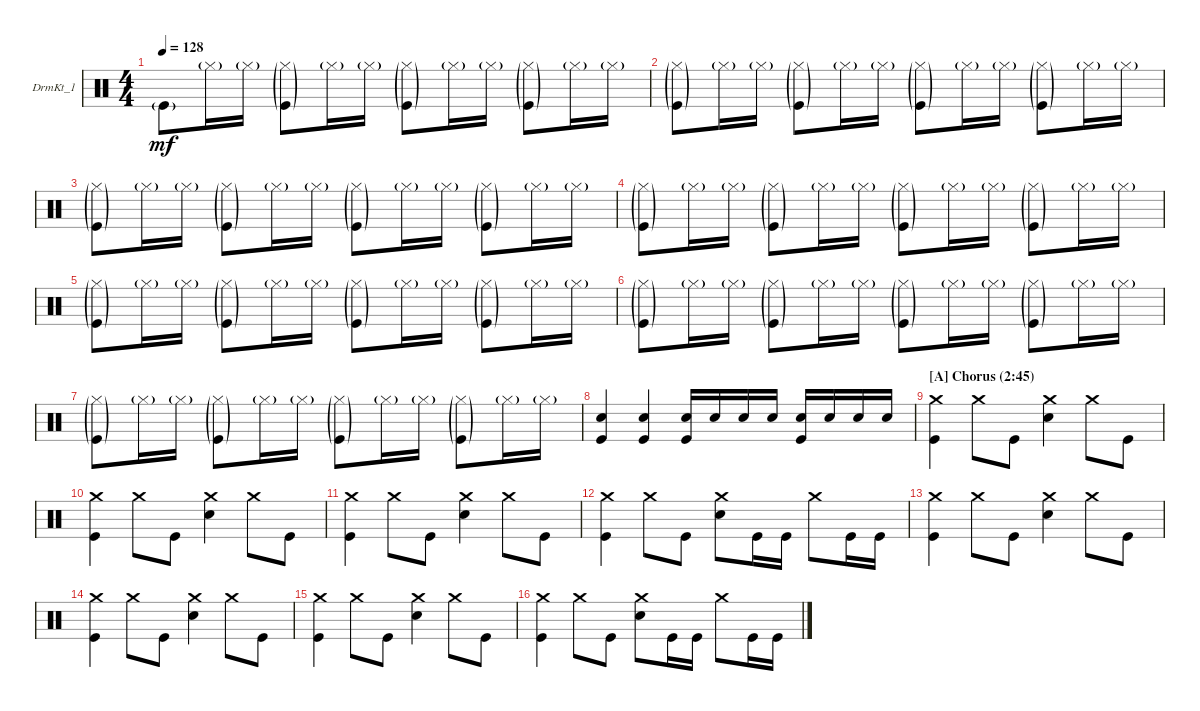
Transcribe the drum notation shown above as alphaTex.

\defaultSystemsLayout 4
\bracketExtendMode groupsimilarinstruments
\firstSystemTrackNameOrientation horizontal
\otherSystemsTrackNameOrientation horizontal
\track ("DrmKt_1" "DrmKt_1") {instrument percussion}
\staff {score}
\articulation defaults
\ts (4 4)
\tempo 128
\clef neutral
\ks c "Kick (hit)"{g}.8{dy mf} "Hi-Hat (closed)"{g}.16 "Hi-Hat (closed)"{g}.16
("Kick (hit)"{g} "Hi-Hat (closed)"{g}).8 "Hi-Hat (closed)"{g}.16 "Hi-Hat (closed)"{g}.16 ("Kick (hit)"{g} "Hi-Hat (closed)"{g}).8 "Hi-Hat (closed)"{g}.16 "Hi-Hat (closed)"{g}.16 ("Kick (hit)"{g} "Hi-Hat (closed)"{g}).8 "Hi-Hat (closed)"{g}.16 "Hi-Hat (closed)"{g}.16 |
("Kick (hit)"{g} "Hi-Hat (closed)"{g}).8 "Hi-Hat (closed)"{g}.16 "Hi-Hat (closed)"{g}.16 ("Kick (hit)"{g} "Hi-Hat (closed)"{g}).8 "Hi-Hat (closed)"{g}.16 "Hi-Hat (closed)"{g}.16 ("Kick (hit)"{g} "Hi-Hat (closed)"{g}).8 "Hi-Hat (closed)"{g}.16 "Hi-Hat (closed)"{g}.16 ("Kick (hit)"{g} "Hi-Hat (closed)"{g}).8 "Hi-Hat (closed)"{g}.16 "Hi-Hat (closed)"{g}.16 |
("Kick (hit)"{g} "Hi-Hat (closed)"{g}).8 "Hi-Hat (closed)"{g}.16 "Hi-Hat (closed)"{g}.16 ("Kick (hit)"{g} "Hi-Hat (closed)"{g}).8 "Hi-Hat (closed)"{g}.16 "Hi-Hat (closed)"{g}.16 ("Kick (hit)"{g} "Hi-Hat (closed)"{g}).8 "Hi-Hat (closed)"{g}.16 "Hi-Hat (closed)"{g}.16 ("Kick (hit)"{g} "Hi-Hat (closed)"{g}).8 "Hi-Hat (closed)"{g}.16 "Hi-Hat (closed)"{g}.16 |
("Kick (hit)"{g} "Hi-Hat (closed)"{g}).8 "Hi-Hat (closed)"{g}.16 "Hi-Hat (closed)"{g}.16 ("Kick (hit)"{g} "Hi-Hat (closed)"{g}).8 "Hi-Hat (closed)"{g}.16 "Hi-Hat (closed)"{g}.16 ("Kick (hit)"{g} "Hi-Hat (closed)"{g}).8 "Hi-Hat (closed)"{g}.16 "Hi-Hat (closed)"{g}.16 ("Kick (hit)"{g} "Hi-Hat (closed)"{g}).8 "Hi-Hat (closed)"{g}.16 "Hi-Hat (closed)"{g}.16 |
("Kick (hit)"{g} "Hi-Hat (closed)"{g}).8 "Hi-Hat (closed)"{g}.16 "Hi-Hat (closed)"{g}.16 ("Kick (hit)"{g} "Hi-Hat (closed)"{g}).8 "Hi-Hat (closed)"{g}.16 "Hi-Hat (closed)"{g}.16 ("Kick (hit)"{g} "Hi-Hat (closed)"{g}).8 "Hi-Hat (closed)"{g}.16 "Hi-Hat (closed)"{g}.16 ("Kick (hit)"{g} "Hi-Hat (closed)"{g}).8 "Hi-Hat (closed)"{g}.16 "Hi-Hat (closed)"{g}.16 |
("Kick (hit)"{g} "Hi-Hat (closed)"{g}).8 "Hi-Hat (closed)"{g}.16 "Hi-Hat (closed)"{g}.16 ("Kick (hit)"{g} "Hi-Hat (closed)"{g}).8 "Hi-Hat (closed)"{g}.16 "Hi-Hat (closed)"{g}.16 ("Kick (hit)"{g} "Hi-Hat (closed)"{g}).8 "Hi-Hat (closed)"{g}.16 "Hi-Hat (closed)"{g}.16 ("Kick (hit)"{g} "Hi-Hat (closed)"{g}).8 "Hi-Hat (closed)"{g}.16 "Hi-Hat (closed)"{g}.16 |
("Kick (hit)"{g} "Hi-Hat (closed)"{g}).8 "Hi-Hat (closed)"{g}.16 "Hi-Hat (closed)"{g}.16 ("Kick (hit)"{g} "Hi-Hat (closed)"{g}).8 "Hi-Hat (closed)"{g}.16 "Hi-Hat (closed)"{g}.16 ("Kick (hit)"{g} "Hi-Hat (closed)"{g}).8 "Hi-Hat (closed)"{g}.16 "Hi-Hat (closed)"{g}.16 ("Kick (hit)"{g} "Hi-Hat (closed)"{g}).8 "Hi-Hat (closed)"{g}.16 "Hi-Hat (closed)"{g}.16 |
("Kick (hit)" "Snare (hit) 2").4 ("Kick (hit)" "Snare (hit) 2").4 ("Kick (hit)" "Snare (hit) 2").16 "Snare (hit) 2".16 "Snare (hit) 2".16 "Snare (hit) 2".16 ("Kick (hit)" "Snare (hit) 2").16 "Snare (hit) 2".16 "Snare (hit) 2".16 "Snare (hit) 2".16 |
\section ("A" "Chorus (2:45)")
("Kick (hit)" "Crash medium (hit)").4 "Crash medium (hit)".8 "Kick (hit)".8 ("Snare (hit) 2" "Crash medium (hit)").4 "Crash medium (hit)".8 "Kick (hit)".8 |
("Kick (hit)" "Crash medium (hit)").4 "Crash medium (hit)".8 "Kick (hit)".8 ("Snare (hit) 2" "Crash medium (hit)").4 "Crash medium (hit)".8 "Kick (hit)".8 |
("Kick (hit)" "Crash medium (hit)").4 "Crash medium (hit)".8 "Kick (hit)".8 ("Snare (hit) 2" "Crash medium (hit)").4 "Crash medium (hit)".8 "Kick (hit)".8 |
("Kick (hit)" "Crash medium (hit)").4 "Crash medium (hit)".8 "Kick (hit)".8 ("Snare (hit) 2" "Crash medium (hit)").8 "Kick (hit)".16 "Kick (hit)".16 "Crash medium (hit)".8 "Kick (hit)".16 "Kick (hit)".16 |
("Kick (hit)" "Crash medium (hit)").4 "Crash medium (hit)".8 "Kick (hit)".8 ("Snare (hit) 2" "Crash medium (hit)").4 "Crash medium (hit)".8 "Kick (hit)".8 |
("Kick (hit)" "Crash medium (hit)").4 "Crash medium (hit)".8 "Kick (hit)".8 ("Snare (hit) 2" "Crash medium (hit)").4 "Crash medium (hit)".8 "Kick (hit)".8 |
("Kick (hit)" "Crash medium (hit)").4 "Crash medium (hit)".8 "Kick (hit)".8 ("Snare (hit) 2" "Crash medium (hit)").4 "Crash medium (hit)".8 "Kick (hit)".8 |
("Kick (hit)" "Crash medium (hit)").4 "Crash medium (hit)".8 "Kick (hit)".8 ("Snare (hit) 2" "Crash medium (hit)").8 "Kick (hit)".16 "Kick (hit)".16 "Crash medium (hit)".8 "Kick (hit)".16 "Kick (hit)".16
